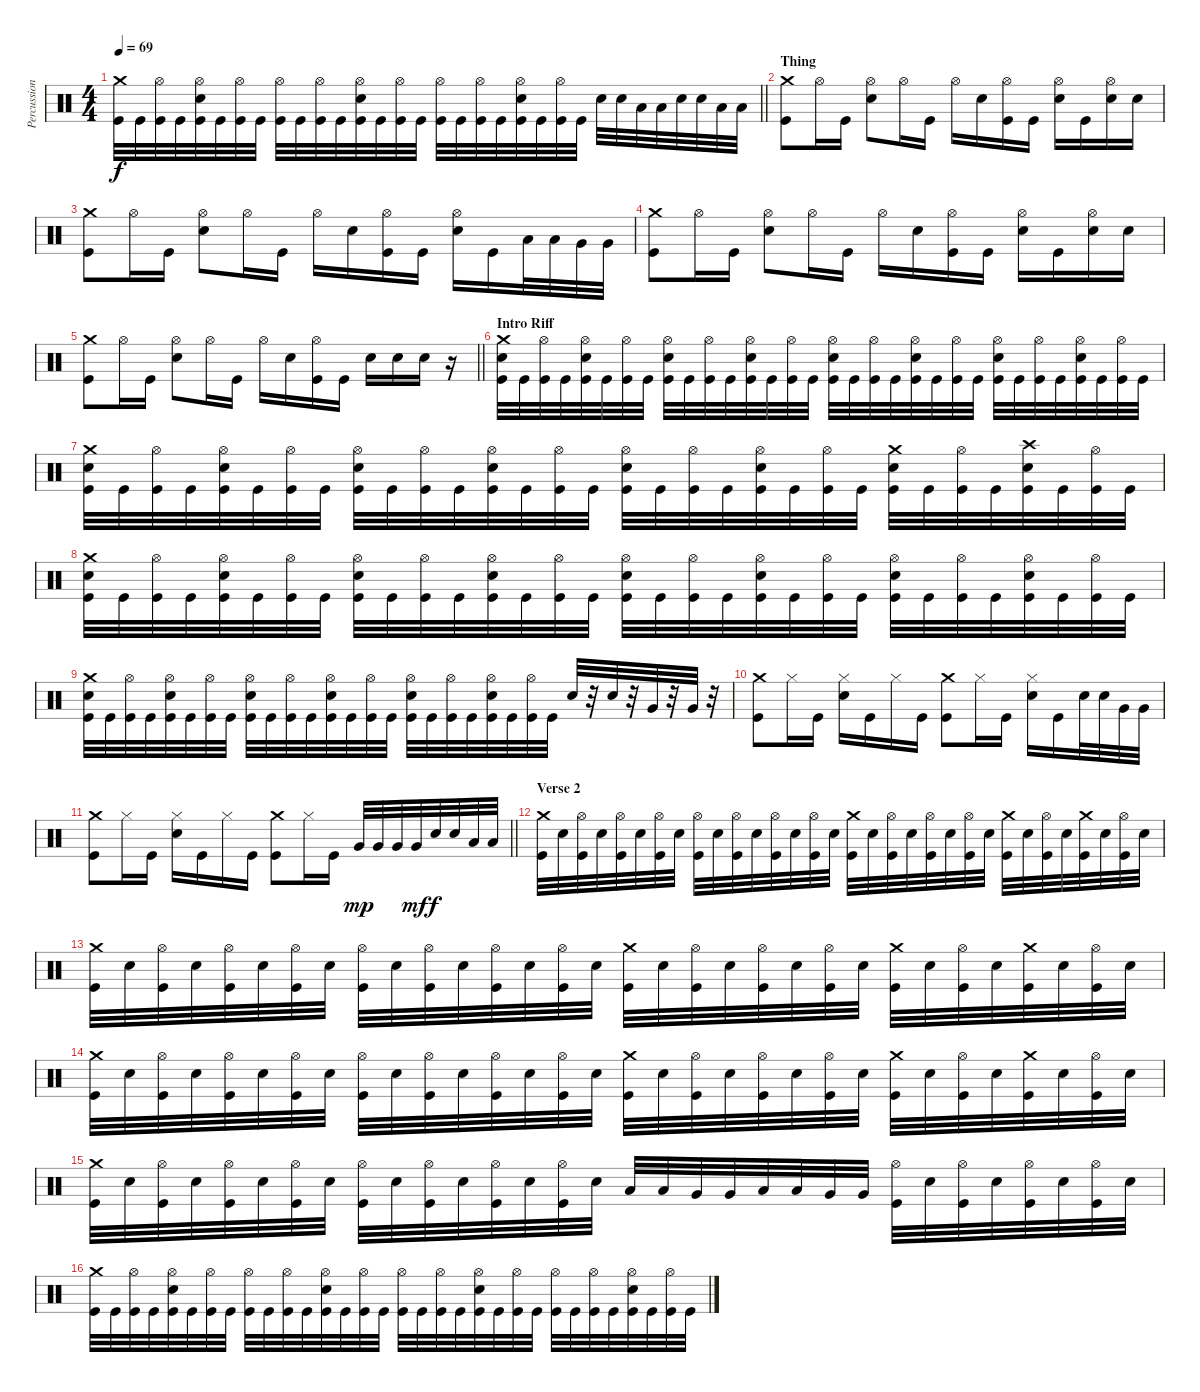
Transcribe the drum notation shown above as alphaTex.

\track ("Percussion" "Percussion") {instrument percussion}
\staff {score}
\articulation defaults
\ts (4 4)
\tempo 69
\clef neutral
\barLineRight lightlight
\ks c
("Crash medium (hit)" "Kick (hit)").32{dy f} "Kick (hit)".32 ("Hi-Hat (open)" "Kick (hit)").32 "Kick (hit)".32 ("Hi-Hat (open)" "Electric Snare (hit)" "Kick (hit)").32 "Kick (hit)".32 ("Hi-Hat (open)" "Kick (hit)").32 "Kick (hit)".32 ("Hi-Hat (open)" "Kick (hit)").32 "Kick (hit)".32 ("Hi-Hat (open)" "Kick (hit)").32 "Kick (hit)".32 ("Hi-Hat (open)" "Electric Snare (hit)" "Kick (hit)").32 "Kick (hit)".32 ("Hi-Hat (open)" "Kick (hit)").32 "Kick (hit)".32 ("Hi-Hat (open)" "Kick (hit)").32 "Kick (hit)".32 ("Hi-Hat (open)" "Kick (hit)").32 "Kick (hit)".32 ("Hi-Hat (open)" "Electric Snare (hit)" "Kick (hit)").32 "Kick (hit)".32 ("Hi-Hat (open)" "Kick (hit)").32 "Kick (hit)".32 "Electric Snare (hit)".32 "Electric Snare (hit)".32 "Low Tom (hit)".32 "Low Tom (hit)".32 "Electric Snare (hit)".32 "Electric Snare (hit)".32 "Low Tom (hit)".32 "Low Tom (hit)".32 |
\section ("" "Thing")
("Crash medium (hit)" "Kick (hit)").8 "Hi-Hat (open)".16 "Kick (hit)".16 ("Hi-Hat (open)" "Electric Snare (hit)").8 "Hi-Hat (open)".16 "Kick (hit)".16 "Hi-Hat (open)".16 "Electric Snare (hit)".16 ("Hi-Hat (open)" "Kick (hit)").16 "Kick (hit)".16 ("Hi-Hat (open)" "Electric Snare (hit)").16 "Kick (hit)".16 ("Hi-Hat (open)" "Electric Snare (hit)").16 "Electric Snare (hit)".16 |
("Crash medium (hit)" "Kick (hit)").8 "Hi-Hat (open)".16 "Kick (hit)".16 ("Hi-Hat (open)" "Electric Snare (hit)").8 "Hi-Hat (open)".16 "Kick (hit)".16 "Hi-Hat (open)".16 "Electric Snare (hit)".16 ("Hi-Hat (open)" "Kick (hit)").16 "Kick (hit)".16 ("Hi-Hat (open)" "Electric Snare (hit)").16 "Kick (hit)".16 "Low Tom (hit)".32 "Low Tom (hit)".32 "Very Low Tom (hit)".32 "Very Low Tom (hit)".32 |
("Crash medium (hit)" "Kick (hit)").8 "Hi-Hat (open)".16 "Kick (hit)".16 ("Hi-Hat (open)" "Electric Snare (hit)").8 "Hi-Hat (open)".16 "Kick (hit)".16 "Hi-Hat (open)".16 "Electric Snare (hit)".16 ("Hi-Hat (open)" "Kick (hit)").16 "Kick (hit)".16 ("Hi-Hat (open)" "Electric Snare (hit)").16 "Kick (hit)".16 ("Hi-Hat (open)" "Electric Snare (hit)").16 "Electric Snare (hit)".16 |
\barLineRight lightlight
("Crash medium (hit)" "Kick (hit)").8 "Hi-Hat (open)".16 "Kick (hit)".16 ("Hi-Hat (open)" "Electric Snare (hit)").8 "Hi-Hat (open)".16 "Kick (hit)".16 "Hi-Hat (open)".16 "Electric Snare (hit)".16 ("Hi-Hat (open)" "Kick (hit)").16 "Kick (hit)".16 "Electric Snare (hit)".16 "Electric Snare (hit)".16 "Electric Snare (hit)".16 r.16 |
\section ("" "Intro Riff")
("Crash medium (hit)" "Electric Snare (hit)" "Kick (hit)").32 "Kick (hit)".32 ("Hi-Hat (open)" "Kick (hit)").32 "Kick (hit)".32 ("Hi-Hat (open)" "Electric Snare (hit)" "Kick (hit)").32 "Kick (hit)".32 ("Hi-Hat (open)" "Kick (hit)").32 "Kick (hit)".32 ("Hi-Hat (open)" "Electric Snare (hit)" "Kick (hit)").32 "Kick (hit)".32 ("Hi-Hat (open)" "Kick (hit)").32 "Kick (hit)".32 ("Hi-Hat (open)" "Electric Snare (hit)" "Kick (hit)").32 "Kick (hit)".32 ("Hi-Hat (open)" "Kick (hit)").32 "Kick (hit)".32 ("Hi-Hat (open)" "Electric Snare (hit)" "Kick (hit)").32 "Kick (hit)".32 ("Hi-Hat (open)" "Kick (hit)").32 "Kick (hit)".32 ("Hi-Hat (open)" "Electric Snare (hit)" "Kick (hit)").32 "Kick (hit)".32 ("Hi-Hat (open)" "Kick (hit)").32 "Kick (hit)".32 ("Hi-Hat (open)" "Electric Snare (hit)" "Kick (hit)").32 "Kick (hit)".32 ("Hi-Hat (open)" "Kick (hit)").32 "Kick (hit)".32 ("Hi-Hat (open)" "Electric Snare (hit)" "Kick (hit)").32 "Kick (hit)".32 ("Hi-Hat (open)" "Kick (hit)").32 "Kick (hit)".32 |
("Crash medium (hit)" "Electric Snare (hit)" "Kick (hit)").32 "Kick (hit)".32 ("Hi-Hat (open)" "Kick (hit)").32 "Kick (hit)".32 ("Hi-Hat (open)" "Electric Snare (hit)" "Kick (hit)").32 "Kick (hit)".32 ("Hi-Hat (open)" "Kick (hit)").32 "Kick (hit)".32 ("Hi-Hat (open)" "Electric Snare (hit)" "Kick (hit)").32 "Kick (hit)".32 ("Hi-Hat (open)" "Kick (hit)").32 "Kick (hit)".32 ("Hi-Hat (open)" "Electric Snare (hit)" "Kick (hit)").32 "Kick (hit)".32 ("Hi-Hat (open)" "Kick (hit)").32 "Kick (hit)".32 ("Hi-Hat (open)" "Electric Snare (hit)" "Kick (hit)").32 "Kick (hit)".32 ("Hi-Hat (open)" "Kick (hit)").32 "Kick (hit)".32 ("Hi-Hat (open)" "Electric Snare (hit)" "Kick (hit)").32 "Kick (hit)".32 ("Hi-Hat (open)" "Kick (hit)").32 "Kick (hit)".32 ("Crash medium (hit)" "Electric Snare (hit)" "Kick (hit)").32 "Kick (hit)".32 ("Hi-Hat (open)" "Kick (hit)").32 "Kick (hit)".32 ("Crash high (hit)" "Electric Snare (hit)" "Kick (hit)").32 "Kick (hit)".32 ("Hi-Hat (open)" "Kick (hit)").32 "Kick (hit)".32 |
("Crash medium (hit)" "Electric Snare (hit)" "Kick (hit)").32 "Kick (hit)".32 ("Hi-Hat (open)" "Kick (hit)").32 "Kick (hit)".32 ("Hi-Hat (open)" "Electric Snare (hit)" "Kick (hit)").32 "Kick (hit)".32 ("Hi-Hat (open)" "Kick (hit)").32 "Kick (hit)".32 ("Hi-Hat (open)" "Electric Snare (hit)" "Kick (hit)").32 "Kick (hit)".32 ("Hi-Hat (open)" "Kick (hit)").32 "Kick (hit)".32 ("Hi-Hat (open)" "Electric Snare (hit)" "Kick (hit)").32 "Kick (hit)".32 ("Hi-Hat (open)" "Kick (hit)").32 "Kick (hit)".32 ("Hi-Hat (open)" "Electric Snare (hit)" "Kick (hit)").32 "Kick (hit)".32 ("Hi-Hat (open)" "Kick (hit)").32 "Kick (hit)".32 ("Hi-Hat (open)" "Electric Snare (hit)" "Kick (hit)").32 "Kick (hit)".32 ("Hi-Hat (open)" "Kick (hit)").32 "Kick (hit)".32 ("Hi-Hat (open)" "Electric Snare (hit)" "Kick (hit)").32 "Kick (hit)".32 ("Hi-Hat (open)" "Kick (hit)").32 "Kick (hit)".32 ("Hi-Hat (open)" "Electric Snare (hit)" "Kick (hit)").32 "Kick (hit)".32 ("Hi-Hat (open)" "Kick (hit)").32 "Kick (hit)".32 |
("Crash medium (hit)" "Electric Snare (hit)" "Kick (hit)").32 "Kick (hit)".32 ("Hi-Hat (open)" "Kick (hit)").32 "Kick (hit)".32 ("Hi-Hat (open)" "Electric Snare (hit)" "Kick (hit)").32 "Kick (hit)".32 ("Hi-Hat (open)" "Kick (hit)").32 "Kick (hit)".32 ("Hi-Hat (open)" "Electric Snare (hit)" "Kick (hit)").32 "Kick (hit)".32 ("Hi-Hat (open)" "Kick (hit)").32 "Kick (hit)".32 ("Hi-Hat (open)" "Electric Snare (hit)" "Kick (hit)").32 "Kick (hit)".32 ("Hi-Hat (open)" "Kick (hit)").32 "Kick (hit)".32 ("Hi-Hat (open)" "Electric Snare (hit)" "Kick (hit)").32 "Kick (hit)".32 ("Hi-Hat (open)" "Kick (hit)").32 "Kick (hit)".32 ("Hi-Hat (open)" "Electric Snare (hit)" "Kick (hit)").32 "Kick (hit)".32 ("Hi-Hat (open)" "Kick (hit)").32 "Kick (hit)".32 "Electric Snare (hit)".32 r.32 "Electric Snare (hit)".32 r.32 "Very Low Tom (hit)".32 r.32 "Very Low Tom (hit)".32 r.32 |
("Crash medium (hit)" "Kick (hit)").8 "Hi-Hat (closed)".16 "Kick (hit)".16 ("Hi-Hat (closed)" "Electric Snare (hit)").16 "Kick (hit)".16 "Hi-Hat (closed)".16 "Kick (hit)".16 ("Crash medium (hit)" "Kick (hit)").8 "Hi-Hat (closed)".16 "Kick (hit)".16 ("Hi-Hat (closed)" "Electric Snare (hit)").16 "Kick (hit)".16 "Electric Snare (hit)".32 "Electric Snare (hit)".32 "Very Low Tom (hit)".32 "Very Low Tom (hit)".32 |
\barLineRight lightlight
("Crash medium (hit)" "Kick (hit)").8 "Hi-Hat (closed)".16 "Kick (hit)".16 ("Hi-Hat (closed)" "Electric Snare (hit)").16 "Kick (hit)".16 "Hi-Hat (closed)".16 "Kick (hit)".16 ("Crash medium (hit)" "Kick (hit)").8 "Hi-Hat (closed)".16 "Kick (hit)".16 "Very Low Tom (hit)".32{dy mp} "Very Low Tom (hit)".32 "Very Low Tom (hit)".32 "Very Low Tom (hit)".32{dy mf} "Electric Snare (hit)".32{dy f} "Electric Snare (hit)".32 "Low Tom (hit)".32 "Low Tom (hit)".32 |
\section ("" "Verse 2")
("Crash medium (hit)" "Kick (hit)").32 "Electric Snare (hit)".32 ("Hi-Hat (open)" "Kick (hit)").32 "Electric Snare (hit)".32 ("Hi-Hat (open)" "Kick (hit)").32 "Electric Snare (hit)".32 ("Hi-Hat (open)" "Kick (hit)").32 "Electric Snare (hit)".32 ("Hi-Hat (open)" "Kick (hit)").32 "Electric Snare (hit)".32 ("Hi-Hat (open)" "Kick (hit)").32 "Electric Snare (hit)".32 ("Hi-Hat (open)" "Kick (hit)").32 "Electric Snare (hit)".32 ("Hi-Hat (open)" "Kick (hit)").32 "Electric Snare (hit)".32 ("Crash medium (hit)" "Kick (hit)").32 "Electric Snare (hit)".32 ("Hi-Hat (open)" "Kick (hit)").32 "Electric Snare (hit)".32 ("Hi-Hat (open)" "Kick (hit)").32 "Electric Snare (hit)".32 ("Hi-Hat (open)" "Kick (hit)").32 "Electric Snare (hit)".32 ("Crash medium (hit)" "Kick (hit)").32 "Electric Snare (hit)".32 ("Hi-Hat (open)" "Kick (hit)").32 "Electric Snare (hit)".32 ("Crash medium (hit)" "Kick (hit)").32 "Electric Snare (hit)".32 ("Hi-Hat (open)" "Kick (hit)").32 "Electric Snare (hit)".32 |
("Crash medium (hit)" "Kick (hit)").32 "Electric Snare (hit)".32 ("Hi-Hat (open)" "Kick (hit)").32 "Electric Snare (hit)".32 ("Hi-Hat (open)" "Kick (hit)").32 "Electric Snare (hit)".32 ("Hi-Hat (open)" "Kick (hit)").32 "Electric Snare (hit)".32 ("Hi-Hat (open)" "Kick (hit)").32 "Electric Snare (hit)".32 ("Hi-Hat (open)" "Kick (hit)").32 "Electric Snare (hit)".32 ("Hi-Hat (open)" "Kick (hit)").32 "Electric Snare (hit)".32 ("Hi-Hat (open)" "Kick (hit)").32 "Electric Snare (hit)".32 ("Crash medium (hit)" "Kick (hit)").32 "Electric Snare (hit)".32 ("Hi-Hat (open)" "Kick (hit)").32 "Electric Snare (hit)".32 ("Hi-Hat (open)" "Kick (hit)").32 "Electric Snare (hit)".32 ("Hi-Hat (open)" "Kick (hit)").32 "Electric Snare (hit)".32 ("Crash medium (hit)" "Kick (hit)").32 "Electric Snare (hit)".32 ("Hi-Hat (open)" "Kick (hit)").32 "Electric Snare (hit)".32 ("Crash medium (hit)" "Kick (hit)").32 "Electric Snare (hit)".32 ("Hi-Hat (open)" "Kick (hit)").32 "Electric Snare (hit)".32 |
("Crash medium (hit)" "Kick (hit)").32 "Electric Snare (hit)".32 ("Hi-Hat (open)" "Kick (hit)").32 "Electric Snare (hit)".32 ("Hi-Hat (open)" "Kick (hit)").32 "Electric Snare (hit)".32 ("Hi-Hat (open)" "Kick (hit)").32 "Electric Snare (hit)".32 ("Hi-Hat (open)" "Kick (hit)").32 "Electric Snare (hit)".32 ("Hi-Hat (open)" "Kick (hit)").32 "Electric Snare (hit)".32 ("Hi-Hat (open)" "Kick (hit)").32 "Electric Snare (hit)".32 ("Hi-Hat (open)" "Kick (hit)").32 "Electric Snare (hit)".32 ("Crash medium (hit)" "Kick (hit)").32 "Electric Snare (hit)".32 ("Hi-Hat (open)" "Kick (hit)").32 "Electric Snare (hit)".32 ("Hi-Hat (open)" "Kick (hit)").32 "Electric Snare (hit)".32 ("Hi-Hat (open)" "Kick (hit)").32 "Electric Snare (hit)".32 ("Crash medium (hit)" "Kick (hit)").32 "Electric Snare (hit)".32 ("Hi-Hat (open)" "Kick (hit)").32 "Electric Snare (hit)".32 ("Crash medium (hit)" "Kick (hit)").32 "Electric Snare (hit)".32 ("Hi-Hat (open)" "Kick (hit)").32 "Electric Snare (hit)".32 |
("Crash medium (hit)" "Kick (hit)").32 "Electric Snare (hit)".32 ("Hi-Hat (open)" "Kick (hit)").32 "Electric Snare (hit)".32 ("Hi-Hat (open)" "Kick (hit)").32 "Electric Snare (hit)".32 ("Hi-Hat (open)" "Kick (hit)").32 "Electric Snare (hit)".32 ("Hi-Hat (open)" "Kick (hit)").32 "Electric Snare (hit)".32 ("Hi-Hat (open)" "Kick (hit)").32 "Electric Snare (hit)".32 ("Hi-Hat (open)" "Kick (hit)").32 "Electric Snare (hit)".32 ("Hi-Hat (open)" "Kick (hit)").32 "Electric Snare (hit)".32 "Low Tom (hit)".32 "Low Tom (hit)".32 "Very Low Tom (hit)".32 "Very Low Tom (hit)".32 "Low Tom (hit)".32 "Low Tom (hit)".32 "Very Low Tom (hit)".32 "Very Low Tom (hit)".32 ("Hi-Hat (open)" "Kick (hit)").32 "Electric Snare (hit)".32 ("Hi-Hat (open)" "Kick (hit)").32 "Electric Snare (hit)".32 ("Hi-Hat (open)" "Kick (hit)").32 "Electric Snare (hit)".32 ("Hi-Hat (open)" "Kick (hit)").32 "Electric Snare (hit)".32 |
("Crash medium (hit)" "Kick (hit)").32 "Kick (hit)".32 ("Hi-Hat (open)" "Kick (hit)").32 "Kick (hit)".32 ("Hi-Hat (open)" "Electric Snare (hit)" "Kick (hit)").32 "Kick (hit)".32 ("Hi-Hat (open)" "Kick (hit)").32 "Kick (hit)".32 ("Hi-Hat (open)" "Kick (hit)").32 "Kick (hit)".32 ("Hi-Hat (open)" "Kick (hit)").32 "Kick (hit)".32 ("Hi-Hat (open)" "Electric Snare (hit)" "Kick (hit)").32 "Kick (hit)".32 ("Hi-Hat (open)" "Kick (hit)").32 "Kick (hit)".32 ("Hi-Hat (open)" "Kick (hit)").32 "Kick (hit)".32 ("Hi-Hat (open)" "Kick (hit)").32 "Kick (hit)".32 ("Hi-Hat (open)" "Electric Snare (hit)" "Kick (hit)").32 "Kick (hit)".32 ("Hi-Hat (open)" "Kick (hit)").32 "Kick (hit)".32 ("Hi-Hat (open)" "Kick (hit)").32 "Kick (hit)".32 ("Hi-Hat (open)" "Kick (hit)").32 "Kick (hit)".32 ("Hi-Hat (open)" "Electric Snare (hit)" "Kick (hit)").32 "Kick (hit)".32 ("Hi-Hat (open)" "Kick (hit)").32 "Kick (hit)".32
